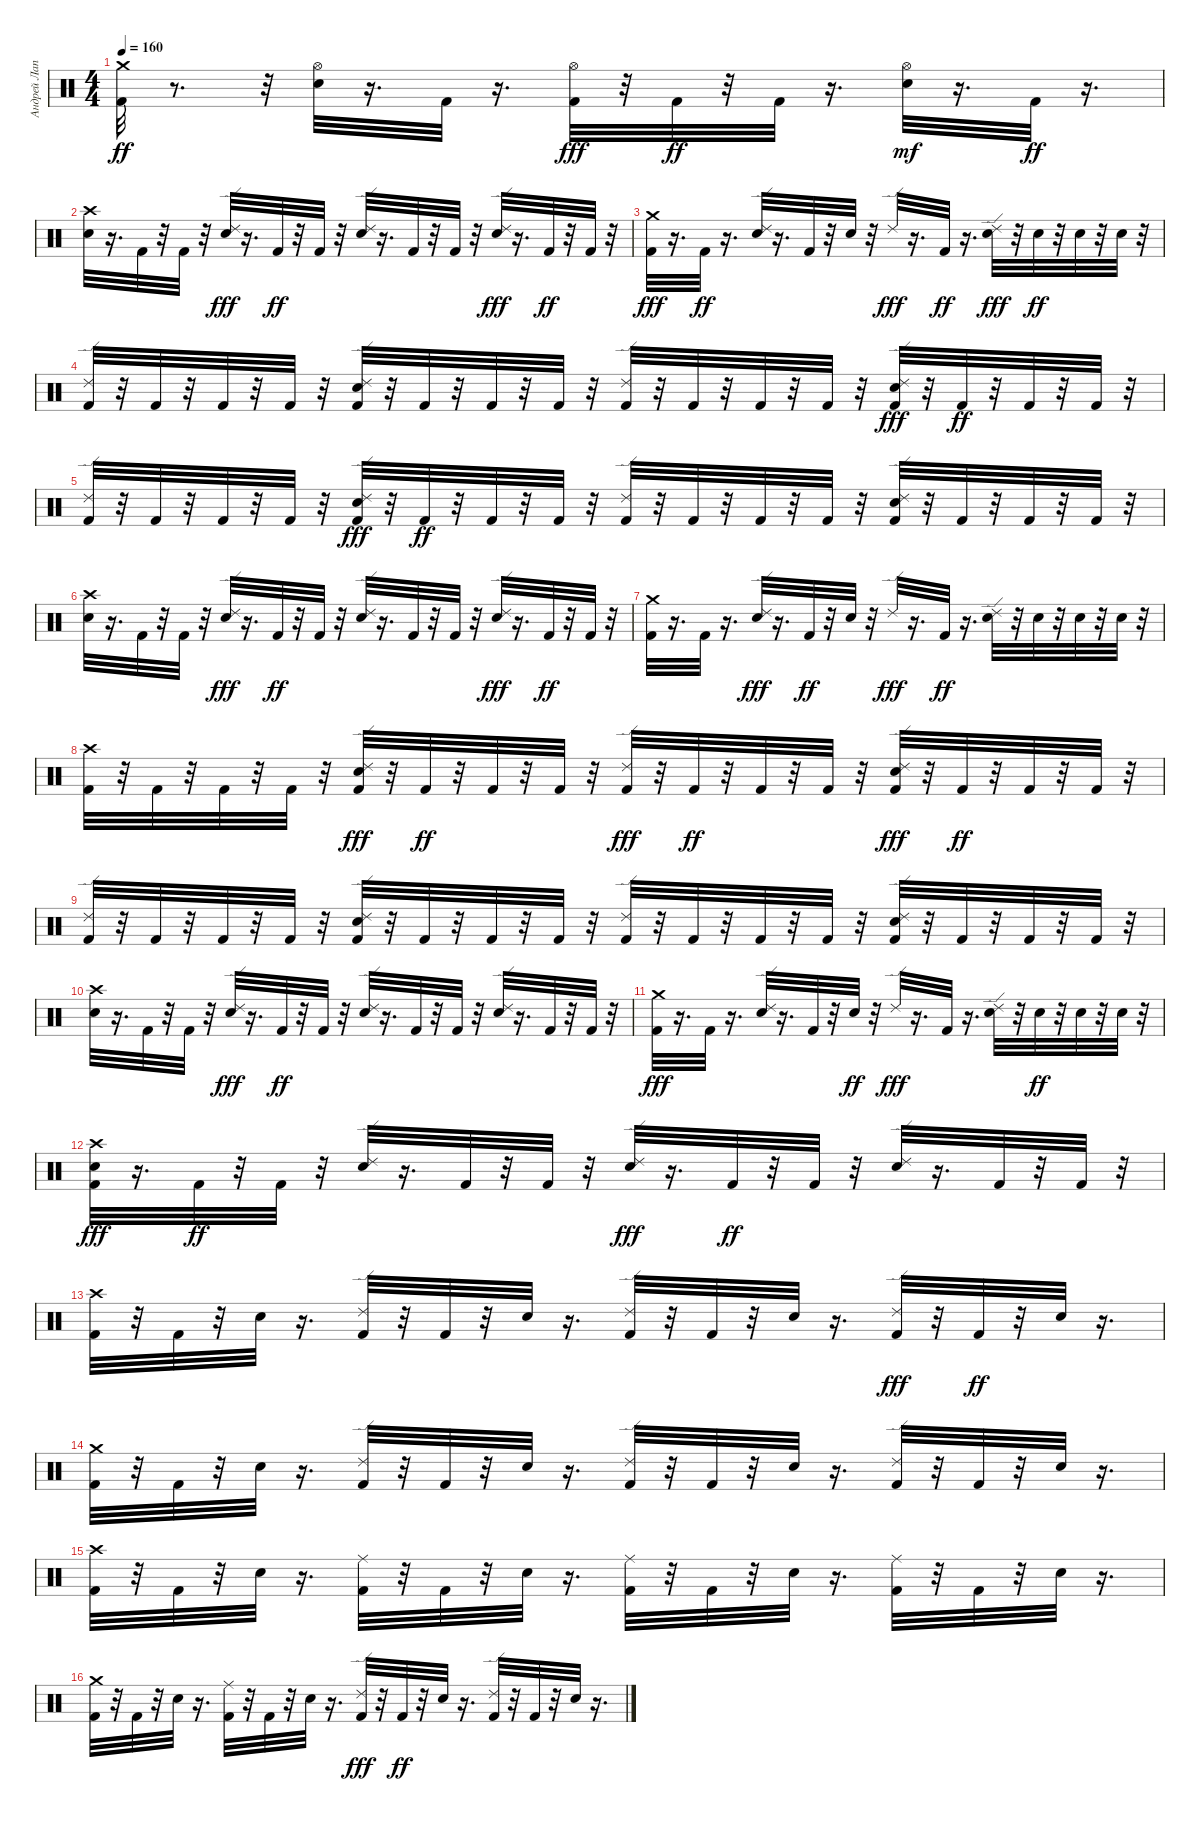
\track ("Андрей Лаптев" "Андрей Лап") {instrument percussion}
\staff {score}
\articulation defaults
\ts (4 4)
\tempo 160
\clef neutral
\ks c
("Crash medium (hit)" "Kick (hit) 2").32{dy ff} r.8{d} r.32 ("Hi-Hat (open)" "Electric Snare (hit)").32 r.16{d} "Kick (hit) 2".32 r.16{d} ("Hi-Hat (open)" "Kick (hit) 2").32{dy fff} r.32 "Kick (hit) 2".32{dy ff} r.32 "Kick (hit) 2".32 r.16{d} ("Electric Snare (hit)" "Hi-Hat (open)").32{dy mf} r.16{d} "Kick (hit) 2".32{dy ff} r.16{d} |
("Crash high (hit)" "Electric Snare (hit)").32 r.16{d} "Kick (hit) 2".32 r.32 "Kick (hit) 2".32 r.32 ("Electric Snare (hit)" "Ride (edge) 2").32{dy fff} r.16{d} "Kick (hit) 2".32{dy ff} r.32 "Kick (hit) 2".32 r.32 ("Ride (edge) 2" "Electric Snare (hit)").32 r.16{d} "Kick (hit) 2".32 r.32 "Kick (hit) 2".32 r.32 ("Electric Snare (hit)" "Ride (edge) 2").32{dy fff} r.16{d} "Kick (hit) 2".32{dy ff} r.32 "Kick (hit) 2".32 r.32 |
("Kick (hit) 2" "Crash medium (hit)").32{dy fff} r.16{d} "Kick (hit) 2".32{dy ff} r.16{d} ("Ride (edge) 2" "Electric Snare (hit)").32 r.16{d} "Kick (hit) 2".32 r.32 "Electric Snare (hit)".32 r.32 "Ride (edge) 2".32{dy fff} r.16{d} "Kick (hit) 2".32{dy ff} r.16{d} ("Electric Snare (hit)" "Ride (edge) 2").32{dy fff} r.32 "Electric Snare (hit)".32{dy ff} r.32 "Electric Snare (hit)".32 r.32 "Electric Snare (hit)".32 r.32 |
("Ride (edge) 2" "Kick (hit) 2").32 r.32 "Kick (hit) 2".32 r.32 "Kick (hit) 2".32 r.32 "Kick (hit) 2".32 r.32 ("Ride (edge) 2" "Kick (hit) 2" "Electric Snare (hit)").32 r.32 "Kick (hit) 2".32 r.32 "Kick (hit) 2".32 r.32 "Kick (hit) 2".32 r.32 ("Ride (edge) 2" "Kick (hit) 2").32 r.32 "Kick (hit) 2".32 r.32 "Kick (hit) 2".32 r.32 "Kick (hit) 2".32 r.32 ("Kick (hit) 2" "Electric Snare (hit)" "Ride (edge) 2").32{dy fff} r.32 "Kick (hit) 2".32{dy ff} r.32 "Kick (hit) 2".32 r.32 "Kick (hit) 2".32 r.32 |
("Ride (edge) 2" "Kick (hit) 2").32 r.32 "Kick (hit) 2".32 r.32 "Kick (hit) 2".32 r.32 "Kick (hit) 2".32 r.32 ("Electric Snare (hit)" "Kick (hit) 2" "Ride (edge) 2").32{dy fff} r.32 "Kick (hit) 2".32{dy ff} r.32 "Kick (hit) 2".32 r.32 "Kick (hit) 2".32 r.32 ("Ride (edge) 2" "Kick (hit) 2").32 r.32 "Kick (hit) 2".32 r.32 "Kick (hit) 2".32 r.32 "Kick (hit) 2".32 r.32 ("Ride (edge) 2" "Kick (hit) 2" "Electric Snare (hit)").32 r.32 "Kick (hit) 2".32 r.32 "Kick (hit) 2".32 r.32 "Kick (hit) 2".32 r.32 |
("Crash high (hit)" "Electric Snare (hit)").32 r.16{d} "Kick (hit) 2".32 r.32 "Kick (hit) 2".32 r.32 ("Electric Snare (hit)" "Ride (edge) 2").32{dy fff} r.16{d} "Kick (hit) 2".32{dy ff} r.32 "Kick (hit) 2".32 r.32 ("Ride (edge) 2" "Electric Snare (hit)").32 r.16{d} "Kick (hit) 2".32 r.32 "Kick (hit) 2".32 r.32 ("Electric Snare (hit)" "Ride (edge) 2").32{dy fff} r.16{d} "Kick (hit) 2".32{dy ff} r.32 "Kick (hit) 2".32 r.32 |
("Kick (hit) 2" "Crash medium (hit)").32 r.16{d} "Kick (hit) 2".32 r.16{d} ("Electric Snare (hit)" "Ride (edge) 2").32{dy fff} r.16{d} "Kick (hit) 2".32{dy ff} r.32 "Electric Snare (hit)".32 r.32 "Ride (edge) 2".32{dy fff} r.16{d} "Kick (hit) 2".32{dy ff} r.16{d} ("Ride (edge) 2" "Electric Snare (hit)").32 r.32 "Electric Snare (hit)".32 r.32 "Electric Snare (hit)".32 r.32 "Electric Snare (hit)".32 r.32 |
("Crash high (hit)" "Kick (hit) 2").32 r.32 "Kick (hit) 2".32 r.32 "Kick (hit) 2".32 r.32 "Kick (hit) 2".32 r.32 ("Kick (hit) 2" "Electric Snare (hit)" "Ride (edge) 2").32{dy fff} r.32 "Kick (hit) 2".32{dy ff} r.32 "Kick (hit) 2".32 r.32 "Kick (hit) 2".32 r.32 ("Kick (hit) 2" "Ride (edge) 2").32{dy fff} r.32 "Kick (hit) 2".32{dy ff} r.32 "Kick (hit) 2".32 r.32 "Kick (hit) 2".32 r.32 ("Electric Snare (hit)" "Kick (hit) 2" "Ride (edge) 2").32{dy fff} r.32 "Kick (hit) 2".32{dy ff} r.32 "Kick (hit) 2".32 r.32 "Kick (hit) 2".32 r.32 |
("Ride (edge) 2" "Kick (hit) 2").32 r.32 "Kick (hit) 2".32 r.32 "Kick (hit) 2".32 r.32 "Kick (hit) 2".32 r.32 ("Ride (edge) 2" "Electric Snare (hit)" "Kick (hit) 2").32 r.32 "Kick (hit) 2".32 r.32 "Kick (hit) 2".32 r.32 "Kick (hit) 2".32 r.32 ("Ride (edge) 2" "Kick (hit) 2").32 r.32 "Kick (hit) 2".32 r.32 "Kick (hit) 2".32 r.32 "Kick (hit) 2".32 r.32 ("Kick (hit) 2" "Ride (edge) 2" "Electric Snare (hit)").32 r.32 "Kick (hit) 2".32 r.32 "Kick (hit) 2".32 r.32 "Kick (hit) 2".32 r.32 |
("Crash high (hit)" "Electric Snare (hit)").32 r.16{d} "Kick (hit) 2".32 r.32 "Kick (hit) 2".32 r.32 ("Electric Snare (hit)" "Ride (edge) 2").32{dy fff} r.16{d} "Kick (hit) 2".32{dy ff} r.32 "Kick (hit) 2".32 r.32 ("Ride (edge) 2" "Electric Snare (hit)").32 r.16{d} "Kick (hit) 2".32 r.32 "Kick (hit) 2".32 r.32 ("Ride (edge) 2" "Electric Snare (hit)").32 r.16{d} "Kick (hit) 2".32 r.32 "Kick (hit) 2".32 r.32 |
("Crash medium (hit)" "Kick (hit) 2").32{dy fff} r.16{d} "Kick (hit) 2".32 r.16{d} ("Electric Snare (hit)" "Ride (edge) 2").32 r.16{d} "Kick (hit) 2".32 r.32 "Electric Snare (hit)".32{dy ff} r.32 "Ride (edge) 2".32{dy fff} r.16{d} "Kick (hit) 2".32 r.16{d} ("Electric Snare (hit)" "Ride (edge) 2").32 r.32 "Electric Snare (hit)".32{dy ff} r.32 "Electric Snare (hit)".32 r.32 "Electric Snare (hit)".32 r.32 |
("Electric Snare (hit)" "Crash high (hit)" "Kick (hit) 2").32{dy fff} r.16{d} "Kick (hit) 2".32{dy ff} r.32 "Kick (hit) 2".32 r.32 ("Ride (edge) 2" "Electric Snare (hit)").32 r.16{d} "Kick (hit) 2".32 r.32 "Kick (hit) 2".32 r.32 ("Electric Snare (hit)" "Ride (edge) 2").32{dy fff} r.16{d} "Kick (hit) 2".32{dy ff} r.32 "Kick (hit) 2".32 r.32 ("Ride (edge) 2" "Electric Snare (hit)").32 r.16{d} "Kick (hit) 2".32 r.32 "Kick (hit) 2".32 r.32 |
("Crash high (hit)" "Kick (hit) 2").32 r.32 "Kick (hit) 2".32 r.32 "Electric Snare (hit)".32 r.16{d} ("Ride (edge) 2" "Kick (hit) 2").32 r.32 "Kick (hit) 2".32 r.32 "Electric Snare (hit)".32 r.16{d} ("Ride (edge) 2" "Kick (hit) 2").32 r.32 "Kick (hit) 2".32 r.32 "Electric Snare (hit)".32 r.16{d} ("Kick (hit) 2" "Ride (edge) 2").32{dy fff} r.32 "Kick (hit) 2".32{dy ff} r.32 "Electric Snare (hit)".32 r.16{d} |
("Crash medium (hit)" "Kick (hit) 2").32 r.32 "Kick (hit) 2".32 r.32 "Electric Snare (hit)".32 r.16{d} ("Ride (edge) 2" "Kick (hit) 2").32 r.32 "Kick (hit) 2".32 r.32 "Electric Snare (hit)".32 r.16{d} ("Ride (edge) 2" "Kick (hit) 2").32 r.32 "Kick (hit) 2".32 r.32 "Electric Snare (hit)".32 r.16{d} ("Ride (edge) 2" "Kick (hit) 2").32 r.32 "Kick (hit) 2".32 r.32 "Electric Snare (hit)".32 r.16{d} |
("Crash high (hit)" "Kick (hit) 2").32 r.32 "Kick (hit) 2".32 r.32 "Electric Snare (hit)".32 r.16{d} ("Ride (middle)" "Kick (hit) 2").32 r.32 "Kick (hit) 2".32 r.32 "Electric Snare (hit)".32 r.16{d} ("Ride (middle)" "Kick (hit) 2").32 r.32 "Kick (hit) 2".32 r.32 "Electric Snare (hit)".32 r.16{d} ("Ride (middle)" "Kick (hit) 2").32 r.32 "Kick (hit) 2".32 r.32 "Electric Snare (hit)".32 r.16{d} |
("Crash medium (hit)" "Kick (hit) 2").32 r.32 "Kick (hit) 2".32 r.32 "Electric Snare (hit)".32 r.16{d} ("Ride (middle)" "Kick (hit) 2").32 r.32 "Kick (hit) 2".32 r.32 "Electric Snare (hit)".32 r.16{d} ("Kick (hit) 2" "Ride (edge) 2").32{dy fff} r.32 "Kick (hit) 2".32{dy ff} r.32 "Electric Snare (hit)".32 r.16{d} ("Ride (edge) 2" "Kick (hit) 2").32 r.32 "Kick (hit) 2".32 r.32 "Electric Snare (hit)".32 r.16{d}
